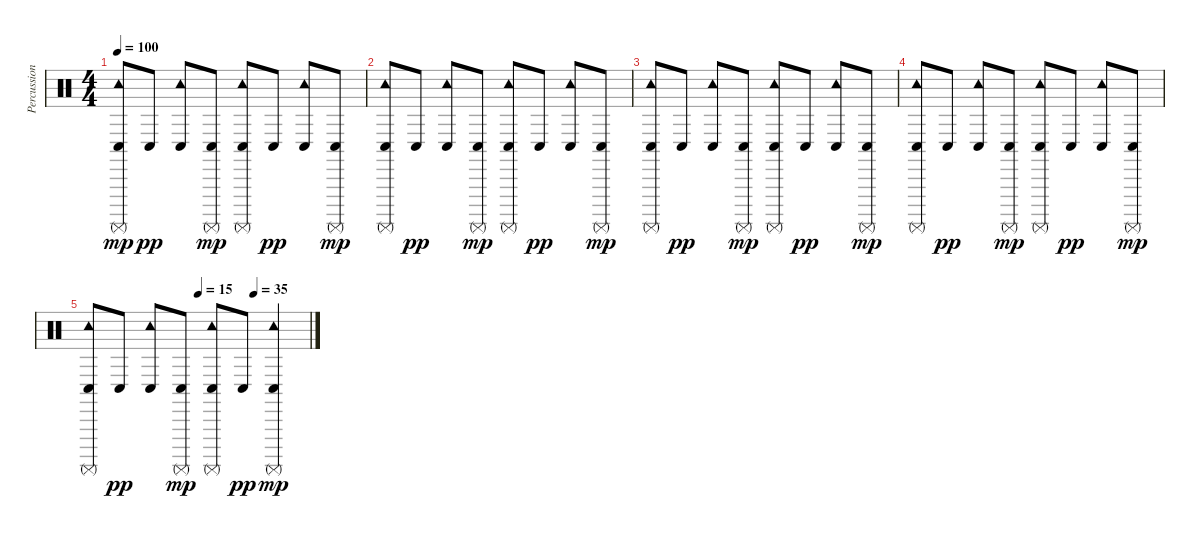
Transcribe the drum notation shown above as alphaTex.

\track ("Percussion" "Percussion") {instrument percussion}
\staff {score}
\articulation defaults
\ts (4 4)
\tempo 100
\clef neutral
\ks c
("Tambourine (hit)" "Conga low (hit)" "Surdo (mute)").8{dy mp} "Conga low (hit)".8{dy pp} ("Tambourine (hit)" "Conga low (hit)").8 ("Conga low (hit)" "Surdo (mute)").8{dy mp} ("Tambourine (hit)" "Conga low (hit)" "Surdo (mute)").8 "Conga low (hit)".8{dy pp} ("Tambourine (hit)" "Conga low (hit)").8 ("Conga low (hit)" "Surdo (mute)").8{dy mp} |
("Tambourine (hit)" "Conga low (hit)" "Surdo (mute)").8 "Conga low (hit)".8{dy pp} ("Tambourine (hit)" "Conga low (hit)").8 ("Conga low (hit)" "Surdo (mute)").8{dy mp} ("Tambourine (hit)" "Conga low (hit)" "Surdo (mute)").8 "Conga low (hit)".8{dy pp} ("Tambourine (hit)" "Conga low (hit)").8 ("Conga low (hit)" "Surdo (mute)").8{dy mp} |
("Tambourine (hit)" "Conga low (hit)" "Surdo (mute)").8 "Conga low (hit)".8{dy pp} ("Tambourine (hit)" "Conga low (hit)").8 ("Conga low (hit)" "Surdo (mute)").8{dy mp} ("Tambourine (hit)" "Conga low (hit)" "Surdo (mute)").8 "Conga low (hit)".8{dy pp} ("Tambourine (hit)" "Conga low (hit)").8 ("Conga low (hit)" "Surdo (mute)").8{dy mp} |
("Tambourine (hit)" "Conga low (hit)" "Surdo (mute)").8 "Conga low (hit)".8{dy pp} ("Tambourine (hit)" "Conga low (hit)").8 ("Conga low (hit)" "Surdo (mute)").8{dy mp} ("Tambourine (hit)" "Conga low (hit)" "Surdo (mute)").8 "Conga low (hit)".8{dy pp} ("Tambourine (hit)" "Conga low (hit)").8 ("Conga low (hit)" "Surdo (mute)").8{dy mp} |
\tempo (15 0.5)
\tempo (35 0.75)
("Tambourine (hit)" "Conga low (hit)" "Surdo (mute)").8 "Conga low (hit)".8{dy pp} ("Tambourine (hit)" "Conga low (hit)").8 ("Conga low (hit)" "Surdo (mute)").8{dy mp} ("Tambourine (hit)" "Conga low (hit)" "Surdo (mute)").8 "Conga low (hit)".8{dy pp} ("Tambourine (hit)" "Conga low (hit)" "Surdo (mute)").4{dy mp}
